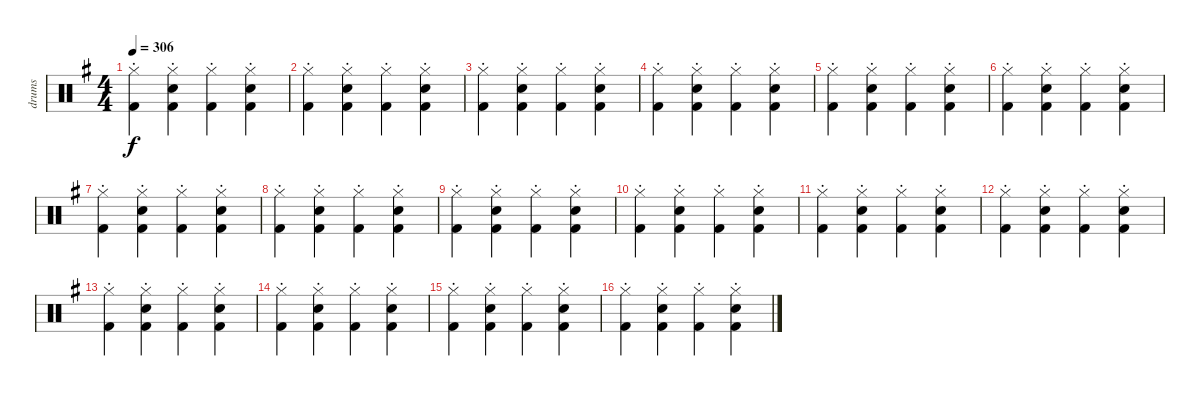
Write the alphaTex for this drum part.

\track ("drums" "drums") {instrument percussion}
\staff {score}
\articulation defaults
\ts (4 4)
\tempo 306
\clef neutral
\ks g
("Hi-Hat (closed)"{st} "Kick (hit) 2").4{dy f} ("Hi-Hat (closed)"{st} "Electric Snare (hit)" "Kick (hit) 2").4 ("Hi-Hat (closed)"{st} "Kick (hit) 2").4 ("Hi-Hat (closed)"{st} "Electric Snare (hit)" "Kick (hit) 2").4 |
("Hi-Hat (closed)"{st} "Kick (hit) 2").4 ("Hi-Hat (closed)"{st} "Electric Snare (hit)" "Kick (hit) 2").4 ("Hi-Hat (closed)"{st} "Kick (hit) 2").4 ("Hi-Hat (closed)"{st} "Electric Snare (hit)" "Kick (hit) 2").4 |
("Hi-Hat (closed)"{st} "Kick (hit) 2").4 ("Hi-Hat (closed)"{st} "Electric Snare (hit)" "Kick (hit) 2").4 ("Hi-Hat (closed)"{st} "Kick (hit) 2").4 ("Hi-Hat (closed)"{st} "Electric Snare (hit)" "Kick (hit) 2").4 |
("Hi-Hat (closed)"{st} "Kick (hit) 2").4 ("Hi-Hat (closed)"{st} "Electric Snare (hit)" "Kick (hit) 2").4 ("Hi-Hat (closed)"{st} "Kick (hit) 2").4 ("Hi-Hat (closed)"{st} "Electric Snare (hit)" "Kick (hit) 2").4 |
("Hi-Hat (closed)"{st} "Kick (hit) 2").4 ("Hi-Hat (closed)"{st} "Electric Snare (hit)" "Kick (hit) 2").4 ("Hi-Hat (closed)"{st} "Kick (hit) 2").4 ("Hi-Hat (closed)"{st} "Electric Snare (hit)" "Kick (hit) 2").4 |
("Hi-Hat (closed)"{st} "Kick (hit) 2").4 ("Hi-Hat (closed)"{st} "Electric Snare (hit)" "Kick (hit) 2").4 ("Hi-Hat (closed)"{st} "Kick (hit) 2").4 ("Hi-Hat (closed)"{st} "Electric Snare (hit)" "Kick (hit) 2").4 |
("Hi-Hat (closed)"{st} "Kick (hit) 2").4 ("Hi-Hat (closed)"{st} "Electric Snare (hit)" "Kick (hit) 2").4 ("Hi-Hat (closed)"{st} "Kick (hit) 2").4 ("Hi-Hat (closed)"{st} "Electric Snare (hit)" "Kick (hit) 2").4 |
("Hi-Hat (closed)"{st} "Kick (hit) 2").4 ("Hi-Hat (closed)"{st} "Electric Snare (hit)" "Kick (hit) 2").4 ("Hi-Hat (closed)"{st} "Kick (hit) 2").4 ("Hi-Hat (closed)"{st} "Electric Snare (hit)" "Kick (hit) 2").4 |
("Hi-Hat (closed)"{st} "Kick (hit) 2").4 ("Hi-Hat (closed)"{st} "Electric Snare (hit)" "Kick (hit) 2").4 ("Hi-Hat (closed)"{st} "Kick (hit) 2").4 ("Hi-Hat (closed)"{st} "Electric Snare (hit)" "Kick (hit) 2").4 |
("Hi-Hat (closed)"{st} "Kick (hit) 2").4 ("Hi-Hat (closed)"{st} "Electric Snare (hit)" "Kick (hit) 2").4 ("Hi-Hat (closed)"{st} "Kick (hit) 2").4 ("Hi-Hat (closed)"{st} "Electric Snare (hit)" "Kick (hit) 2").4 |
("Hi-Hat (closed)"{st} "Kick (hit) 2").4 ("Hi-Hat (closed)"{st} "Electric Snare (hit)" "Kick (hit) 2").4 ("Hi-Hat (closed)"{st} "Kick (hit) 2").4 ("Hi-Hat (closed)"{st} "Electric Snare (hit)" "Kick (hit) 2").4 |
("Hi-Hat (closed)"{st} "Kick (hit) 2").4 ("Hi-Hat (closed)"{st} "Electric Snare (hit)" "Kick (hit) 2").4 ("Hi-Hat (closed)"{st} "Kick (hit) 2").4 ("Hi-Hat (closed)"{st} "Electric Snare (hit)" "Kick (hit) 2").4 |
("Hi-Hat (closed)"{st} "Kick (hit) 2").4 ("Hi-Hat (closed)"{st} "Electric Snare (hit)" "Kick (hit) 2").4 ("Hi-Hat (closed)"{st} "Kick (hit) 2").4 ("Hi-Hat (closed)"{st} "Electric Snare (hit)" "Kick (hit) 2").4 |
("Hi-Hat (closed)"{st} "Kick (hit) 2").4 ("Hi-Hat (closed)"{st} "Electric Snare (hit)" "Kick (hit) 2").4 ("Hi-Hat (closed)"{st} "Kick (hit) 2").4 ("Hi-Hat (closed)"{st} "Electric Snare (hit)" "Kick (hit) 2").4 |
("Hi-Hat (closed)"{st} "Kick (hit) 2").4 ("Hi-Hat (closed)"{st} "Electric Snare (hit)" "Kick (hit) 2").4 ("Hi-Hat (closed)"{st} "Kick (hit) 2").4 ("Hi-Hat (closed)"{st} "Electric Snare (hit)" "Kick (hit) 2").4 |
("Hi-Hat (closed)"{st} "Kick (hit) 2").4 ("Hi-Hat (closed)"{st} "Electric Snare (hit)" "Kick (hit) 2").4 ("Hi-Hat (closed)"{st} "Kick (hit) 2").4 ("Hi-Hat (closed)"{st} "Electric Snare (hit)" "Kick (hit) 2").4
